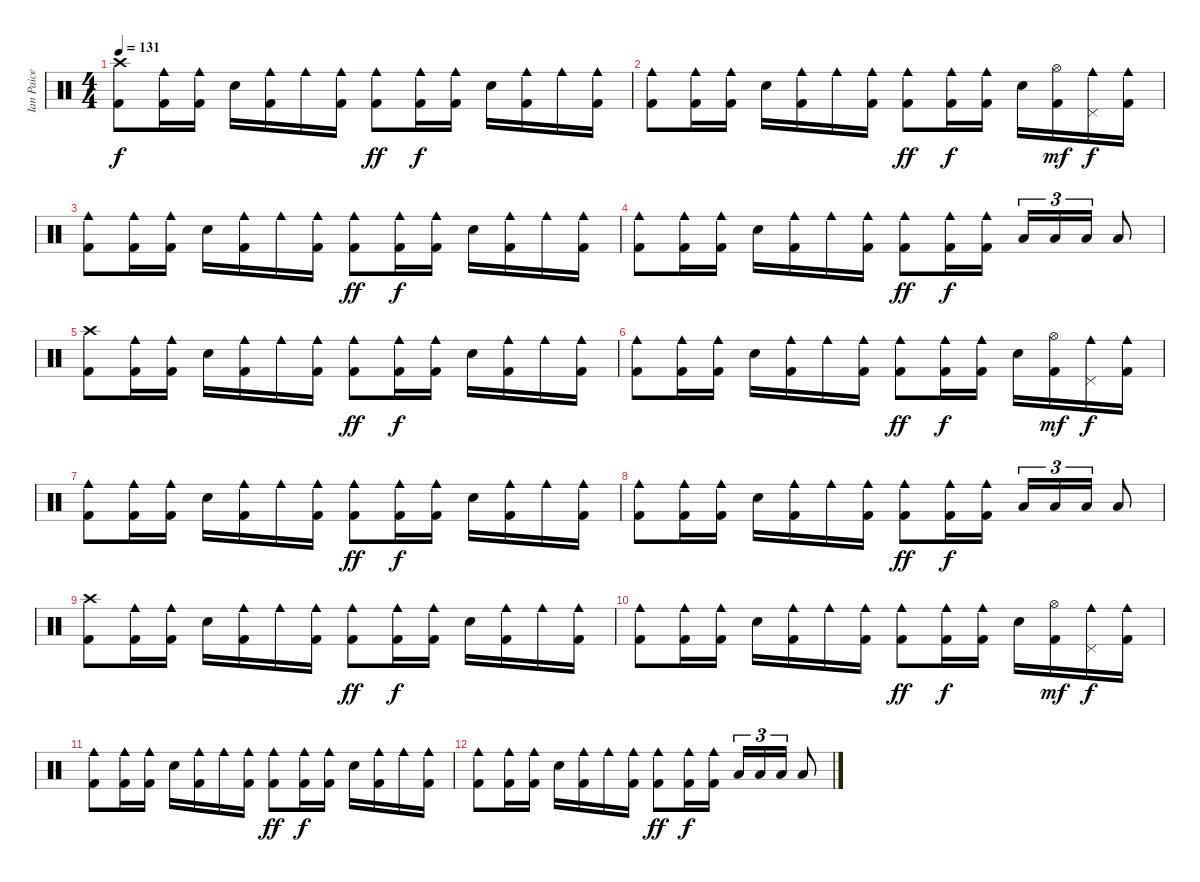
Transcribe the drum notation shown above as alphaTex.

\track ("Ian Paice" "Ian Paice") {instrument percussion}
\staff {score}
\articulation defaults
\ts (4 4)
\tempo 131
\clef neutral
\ks c
("Crash high (hit)" "Kick (hit) 2").8{dy f} ("Cowbell medium (hit)" "Kick (hit) 2").16 ("Cowbell medium (hit)" "Kick (hit) 2").16 "Snare (hit) 2".16 ("Cowbell medium (hit)" "Kick (hit) 2").16 "Cowbell medium (hit)".16 ("Cowbell medium (hit)" "Kick (hit) 2").16 ("Cowbell medium (hit)" "Kick (hit) 2").8{dy ff} ("Cowbell medium (hit)" "Kick (hit) 2").16{dy f} ("Cowbell medium (hit)" "Kick (hit) 2").16 "Snare (hit) 2".16 ("Cowbell medium (hit)" "Kick (hit) 2").16 "Cowbell medium (hit)".16 ("Cowbell medium (hit)" "Kick (hit) 2").16 |
("Cowbell medium (hit)" "Kick (hit) 2").8 ("Cowbell medium (hit)" "Kick (hit) 2").16 ("Cowbell medium (hit)" "Kick (hit) 2").16 "Snare (hit) 2".16 ("Cowbell medium (hit)" "Kick (hit) 2").16 "Cowbell medium (hit)".16 ("Cowbell medium (hit)" "Kick (hit) 2").16 ("Cowbell medium (hit)" "Kick (hit) 2").8{dy ff} ("Cowbell medium (hit)" "Kick (hit) 2").16{dy f} ("Cowbell medium (hit)" "Kick (hit) 2").16 "Snare (hit) 2".16 ("Hi-Hat (open)" "Kick (hit) 2").16{dy mf} ("Pedal Hi-Hat (hit)" "Cowbell medium (hit)").16{dy f} ("Cowbell medium (hit)" "Kick (hit) 2").16 |
("Cowbell medium (hit)" "Kick (hit) 2").8 ("Cowbell medium (hit)" "Kick (hit) 2").16 ("Cowbell medium (hit)" "Kick (hit) 2").16 "Snare (hit) 2".16 ("Cowbell medium (hit)" "Kick (hit) 2").16 "Cowbell medium (hit)".16 ("Cowbell medium (hit)" "Kick (hit) 2").16 ("Cowbell medium (hit)" "Kick (hit) 2").8{dy ff} ("Cowbell medium (hit)" "Kick (hit) 2").16{dy f} ("Cowbell medium (hit)" "Kick (hit) 2").16 "Snare (hit) 2".16 ("Cowbell medium (hit)" "Kick (hit) 2").16 "Cowbell medium (hit)".16 ("Cowbell medium (hit)" "Kick (hit) 2").16 |
("Cowbell medium (hit)" "Kick (hit) 2").8 ("Cowbell medium (hit)" "Kick (hit) 2").16 ("Cowbell medium (hit)" "Kick (hit) 2").16 "Snare (hit) 2".16 ("Cowbell medium (hit)" "Kick (hit) 2").16 "Cowbell medium (hit)".16 ("Cowbell medium (hit)" "Kick (hit) 2").16 ("Cowbell medium (hit)" "Kick (hit) 2").8{dy ff} ("Cowbell medium (hit)" "Kick (hit) 2").16{dy f} ("Cowbell medium (hit)" "Kick (hit) 2").16 "Low Tom (hit)".16{tu (3 2)} "Low Tom (hit)".16{tu (3 2)} "Low Tom (hit)".16{tu (3 2)} "Low Floor Tom (hit)".8 |
("Crash high (hit)" "Kick (hit) 2").8 ("Cowbell medium (hit)" "Kick (hit) 2").16 ("Cowbell medium (hit)" "Kick (hit) 2").16 "Snare (hit) 2".16 ("Cowbell medium (hit)" "Kick (hit) 2").16 "Cowbell medium (hit)".16 ("Cowbell medium (hit)" "Kick (hit) 2").16 ("Cowbell medium (hit)" "Kick (hit) 2").8{dy ff} ("Cowbell medium (hit)" "Kick (hit) 2").16{dy f} ("Cowbell medium (hit)" "Kick (hit) 2").16 "Snare (hit) 2".16 ("Cowbell medium (hit)" "Kick (hit) 2").16 "Cowbell medium (hit)".16 ("Cowbell medium (hit)" "Kick (hit) 2").16 |
("Cowbell medium (hit)" "Kick (hit) 2").8 ("Cowbell medium (hit)" "Kick (hit) 2").16 ("Cowbell medium (hit)" "Kick (hit) 2").16 "Snare (hit) 2".16 ("Cowbell medium (hit)" "Kick (hit) 2").16 "Cowbell medium (hit)".16 ("Cowbell medium (hit)" "Kick (hit) 2").16 ("Cowbell medium (hit)" "Kick (hit) 2").8{dy ff} ("Cowbell medium (hit)" "Kick (hit) 2").16{dy f} ("Cowbell medium (hit)" "Kick (hit) 2").16 "Snare (hit) 2".16 ("Hi-Hat (open)" "Kick (hit) 2").16{dy mf} ("Pedal Hi-Hat (hit)" "Cowbell medium (hit)").16{dy f} ("Cowbell medium (hit)" "Kick (hit) 2").16 |
("Cowbell medium (hit)" "Kick (hit) 2").8 ("Cowbell medium (hit)" "Kick (hit) 2").16 ("Cowbell medium (hit)" "Kick (hit) 2").16 "Snare (hit) 2".16 ("Cowbell medium (hit)" "Kick (hit) 2").16 "Cowbell medium (hit)".16 ("Cowbell medium (hit)" "Kick (hit) 2").16 ("Cowbell medium (hit)" "Kick (hit) 2").8{dy ff} ("Cowbell medium (hit)" "Kick (hit) 2").16{dy f} ("Cowbell medium (hit)" "Kick (hit) 2").16 "Snare (hit) 2".16 ("Cowbell medium (hit)" "Kick (hit) 2").16 "Cowbell medium (hit)".16 ("Cowbell medium (hit)" "Kick (hit) 2").16 |
("Cowbell medium (hit)" "Kick (hit) 2").8 ("Cowbell medium (hit)" "Kick (hit) 2").16 ("Cowbell medium (hit)" "Kick (hit) 2").16 "Snare (hit) 2".16 ("Cowbell medium (hit)" "Kick (hit) 2").16 "Cowbell medium (hit)".16 ("Cowbell medium (hit)" "Kick (hit) 2").16 ("Cowbell medium (hit)" "Kick (hit) 2").8{dy ff} ("Cowbell medium (hit)" "Kick (hit) 2").16{dy f} ("Cowbell medium (hit)" "Kick (hit) 2").16 "Low Floor Tom (hit)".16{tu (3 2)} "Low Floor Tom (hit)".16{tu (3 2)} "Low Tom (hit)".16{tu (3 2)} "Low Floor Tom (hit)".8 |
("Crash high (hit)" "Kick (hit) 2").8 ("Cowbell medium (hit)" "Kick (hit) 2").16 ("Cowbell medium (hit)" "Kick (hit) 2").16 "Snare (hit) 2".16 ("Cowbell medium (hit)" "Kick (hit) 2").16 "Cowbell medium (hit)".16 ("Cowbell medium (hit)" "Kick (hit) 2").16 ("Cowbell medium (hit)" "Kick (hit) 2").8{dy ff} ("Cowbell medium (hit)" "Kick (hit) 2").16{dy f} ("Cowbell medium (hit)" "Kick (hit) 2").16 "Snare (hit) 2".16 ("Cowbell medium (hit)" "Kick (hit) 2").16 "Cowbell medium (hit)".16 ("Cowbell medium (hit)" "Kick (hit) 2").16 |
("Cowbell medium (hit)" "Kick (hit) 2").8 ("Cowbell medium (hit)" "Kick (hit) 2").16 ("Cowbell medium (hit)" "Kick (hit) 2").16 "Snare (hit) 2".16 ("Cowbell medium (hit)" "Kick (hit) 2").16 "Cowbell medium (hit)".16 ("Cowbell medium (hit)" "Kick (hit) 2").16 ("Cowbell medium (hit)" "Kick (hit) 2").8{dy ff} ("Cowbell medium (hit)" "Kick (hit) 2").16{dy f} ("Cowbell medium (hit)" "Kick (hit) 2").16 "Snare (hit) 2".16 ("Hi-Hat (open)" "Kick (hit) 2").16{dy mf} ("Pedal Hi-Hat (hit)" "Cowbell medium (hit)").16{dy f} ("Cowbell medium (hit)" "Kick (hit) 2").16 |
("Cowbell medium (hit)" "Kick (hit) 2").8 ("Cowbell medium (hit)" "Kick (hit) 2").16 ("Cowbell medium (hit)" "Kick (hit) 2").16 "Snare (hit) 2".16 ("Cowbell medium (hit)" "Kick (hit) 2").16 "Cowbell medium (hit)".16 ("Cowbell medium (hit)" "Kick (hit) 2").16 ("Cowbell medium (hit)" "Kick (hit) 2").8{dy ff} ("Cowbell medium (hit)" "Kick (hit) 2").16{dy f} ("Cowbell medium (hit)" "Kick (hit) 2").16 "Snare (hit) 2".16 ("Cowbell medium (hit)" "Kick (hit) 2").16 "Cowbell medium (hit)".16 ("Cowbell medium (hit)" "Kick (hit) 2").16 |
("Cowbell medium (hit)" "Kick (hit) 2").8 ("Cowbell medium (hit)" "Kick (hit) 2").16 ("Cowbell medium (hit)" "Kick (hit) 2").16 "Snare (hit) 2".16 ("Cowbell medium (hit)" "Kick (hit) 2").16 "Cowbell medium (hit)".16 ("Cowbell medium (hit)" "Kick (hit) 2").16 ("Cowbell medium (hit)" "Kick (hit) 2").8{dy ff} ("Cowbell medium (hit)" "Kick (hit) 2").16{dy f} ("Cowbell medium (hit)" "Kick (hit) 2").16 "Low Floor Tom (hit)".16{tu (3 2)} "Low Floor Tom (hit)".16{tu (3 2)} "Low Tom (hit)".16{tu (3 2)} "Low Floor Tom (hit)".8
